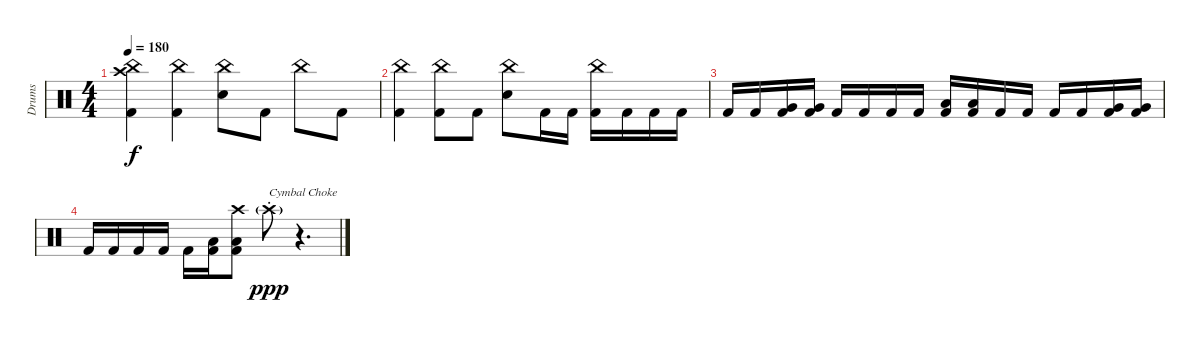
\track ("Drums" "Drums") {instrument percussion}
\staff {score}
\articulation defaults
\ts (4 4)
\tempo 180
\clef neutral
\ks c
("China (hit)" "Crash high (hit)" "Kick (hit) 2").4{dy f} ("China (hit)" "Kick (hit) 2").4 ("China (hit)" "Electric Snare (hit)").8 "Kick (hit) 2".8 "China (hit)".8 "Kick (hit) 2".8 |
("China (hit)" "Kick (hit) 2").4 ("China (hit)" "Kick (hit) 2").8 "Kick (hit) 2".8 ("China (hit)" "Electric Snare (hit)").8 "Kick (hit) 2".16 "Kick (hit) 2".16 ("China (hit)" "Kick (hit) 2").16 "Kick (hit) 2".16 "Kick (hit) 2".16 "Kick (hit) 2".16 |
"Kick (hit) 2".16 "Kick (hit) 2".16 ("Very Low Tom (hit)" "Kick (hit) 2").16 ("Very Low Tom (hit)" "Kick (hit) 2").16 "Kick (hit) 2".16 "Kick (hit) 2".16 "Kick (hit) 2".16 "Kick (hit) 2".16 ("Low Floor Tom (hit)" "Kick (hit) 2").16 ("Low Floor Tom (hit)" "Kick (hit) 2").16 "Kick (hit) 2".16 "Kick (hit) 2".16 "Kick (hit) 2".16 "Kick (hit) 2".16 ("Very Low Tom (hit)" "Kick (hit) 2").16 ("Very Low Tom (hit)" "Kick (hit) 2").16 |
"Kick (hit) 2".16 "Kick (hit) 2".16 "Kick (hit) 2".16 "Kick (hit) 2".16 "Kick (hit) 2".16 ("Low Floor Tom (hit)" "Kick (hit) 2").16 ("Crash high (hit)" "Low Floor Tom (hit)" "Kick (hit) 2").8 "Crash high (hit)"{g st}.8{txt "Cymbal Choke" dy ppp} r.4{d}
